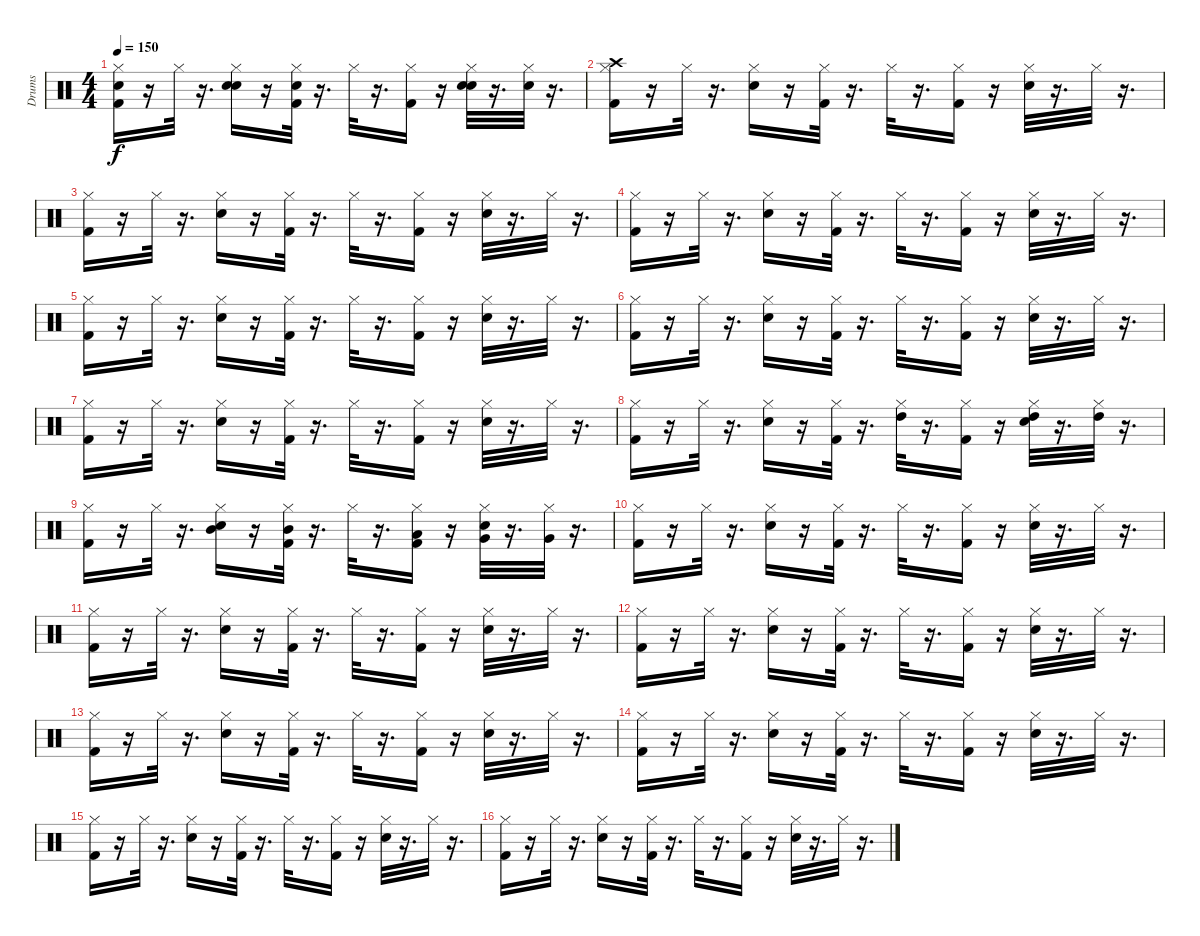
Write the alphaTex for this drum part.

\track ("Drums" "Drums") {instrument percussion}
\staff {score}
\articulation defaults
\ts (4 4)
\tempo 150
\clef neutral
\ks c
("Kick (hit) 2" "Hand Clap (hit)" "Hi-Hat (closed)").16{dy f} r.16 "Hi-Hat (closed)".32 r.16{d} ("Electric Snare (hit)" "Hand Clap (hit)" "Hi-Hat (closed)").16 r.16 ("Kick (hit) 2" "Hand Clap (hit)" "Hi-Hat (closed)").32 r.16{d} "Hi-Hat (closed)".32 r.16{d} ("Kick (hit) 2" "Hi-Hat (closed)").16 r.16 ("Electric Snare (hit)" "Hand Clap (hit)" "Hi-Hat (closed)").32 r.16{d} ("Hand Clap (hit)" "Hi-Hat (closed)").32 r.16{d} |
("Hi-Hat (closed)" "Crash high (hit)" "Kick (hit) 2").16 r.16 "Hi-Hat (closed)".32 r.16{d} ("Electric Snare (hit)" "Hi-Hat (closed)").16 r.16 ("Kick (hit) 2" "Hi-Hat (closed)").32 r.16{d} "Hi-Hat (closed)".32 r.16{d} ("Kick (hit) 2" "Hi-Hat (closed)").16 r.16 ("Electric Snare (hit)" "Hi-Hat (closed)").32 r.16{d} "Hi-Hat (closed)".32 r.16{d} |
("Kick (hit) 2" "Hi-Hat (closed)").16 r.16 "Hi-Hat (closed)".32 r.16{d} ("Electric Snare (hit)" "Hi-Hat (closed)").16 r.16 ("Kick (hit) 2" "Hi-Hat (closed)").32 r.16{d} "Hi-Hat (closed)".32 r.16{d} ("Kick (hit) 2" "Hi-Hat (closed)").16 r.16 ("Electric Snare (hit)" "Hi-Hat (closed)").32 r.16{d} "Hi-Hat (closed)".32 r.16{d} |
("Kick (hit) 2" "Hi-Hat (closed)").16 r.16 "Hi-Hat (closed)".32 r.16{d} ("Electric Snare (hit)" "Hi-Hat (closed)").16 r.16 ("Kick (hit) 2" "Hi-Hat (closed)").32 r.16{d} "Hi-Hat (closed)".32 r.16{d} ("Kick (hit) 2" "Hi-Hat (closed)").16 r.16 ("Electric Snare (hit)" "Hi-Hat (closed)").32 r.16{d} "Hi-Hat (closed)".32 r.16{d} |
("Kick (hit) 2" "Hi-Hat (closed)").16 r.16 "Hi-Hat (closed)".32 r.16{d} ("Electric Snare (hit)" "Hi-Hat (closed)").16 r.16 ("Kick (hit) 2" "Hi-Hat (closed)").32 r.16{d} "Hi-Hat (closed)".32 r.16{d} ("Kick (hit) 2" "Hi-Hat (closed)").16 r.16 ("Electric Snare (hit)" "Hi-Hat (closed)").32 r.16{d} "Hi-Hat (closed)".32 r.16{d} |
("Hi-Hat (closed)" "Kick (hit) 2").16 r.16 "Hi-Hat (closed)".32 r.16{d} ("Electric Snare (hit)" "Hi-Hat (closed)").16 r.16 ("Kick (hit) 2" "Hi-Hat (closed)").32 r.16{d} "Hi-Hat (closed)".32 r.16{d} ("Kick (hit) 2" "Hi-Hat (closed)").16 r.16 ("Electric Snare (hit)" "Hi-Hat (closed)").32 r.16{d} "Hi-Hat (closed)".32 r.16{d} |
("Kick (hit) 2" "Hi-Hat (closed)").16 r.16 "Hi-Hat (closed)".32 r.16{d} ("Electric Snare (hit)" "Hi-Hat (closed)").16 r.16 ("Kick (hit) 2" "Hi-Hat (closed)").32 r.16{d} "Hi-Hat (closed)".32 r.16{d} ("Kick (hit) 2" "Hi-Hat (closed)").16 r.16 ("Electric Snare (hit)" "Hi-Hat (closed)").32 r.16{d} "Hi-Hat (closed)".32 r.16{d} |
("Kick (hit) 2" "Hi-Hat (closed)").16 r.16 "Hi-Hat (closed)".32 r.16{d} ("Electric Snare (hit)" "Hi-Hat (closed)").16 r.16 ("Kick (hit) 2" "Hi-Hat (closed)").32 r.16{d} ("Hi-Hat (closed)" "High Tom (hit)").32 r.16{d} ("Kick (hit) 2" "Hi-Hat (closed)").16 r.16 ("Electric Snare (hit)" "Hi-Hat (closed)" "High Tom (hit)").32 r.16{d} ("Hi-Hat (closed)" "High Tom (hit)").32 r.16{d} |
("Kick (hit) 2" "Hi-Hat (closed)").16 r.16 "Hi-Hat (closed)".32 r.16{d} ("Electric Snare (hit)" "Hi-Hat (closed)" "Mid Tom (hit)").16 r.16 ("Kick (hit) 2" "Hi-Hat (closed)" "Mid Tom (hit)").32 r.16{d} "Hi-Hat (closed)".32 r.16{d} ("Kick (hit) 2" "Hi-Hat (closed)" "Low Tom (hit)").16 r.16 ("Electric Snare (hit)" "Hi-Hat (closed)" "Very Low Tom (hit)").32 r.16{d} ("Hi-Hat (closed)" "Very Low Tom (hit)").32 r.16{d} |
("Hi-Hat (closed)" "Kick (hit) 2").16 r.16 "Hi-Hat (closed)".32 r.16{d} ("Electric Snare (hit)" "Hi-Hat (closed)").16 r.16 ("Kick (hit) 2" "Hi-Hat (closed)").32 r.16{d} "Hi-Hat (closed)".32 r.16{d} ("Kick (hit) 2" "Hi-Hat (closed)").16 r.16 ("Electric Snare (hit)" "Hi-Hat (closed)").32 r.16{d} "Hi-Hat (closed)".32 r.16{d} |
("Kick (hit) 2" "Hi-Hat (closed)").16 r.16 "Hi-Hat (closed)".32 r.16{d} ("Electric Snare (hit)" "Hi-Hat (closed)").16 r.16 ("Kick (hit) 2" "Hi-Hat (closed)").32 r.16{d} "Hi-Hat (closed)".32 r.16{d} ("Kick (hit) 2" "Hi-Hat (closed)").16 r.16 ("Electric Snare (hit)" "Hi-Hat (closed)").32 r.16{d} "Hi-Hat (closed)".32 r.16{d} |
("Kick (hit) 2" "Hi-Hat (closed)").16 r.16 "Hi-Hat (closed)".32 r.16{d} ("Electric Snare (hit)" "Hi-Hat (closed)").16 r.16 ("Kick (hit) 2" "Hi-Hat (closed)").32 r.16{d} "Hi-Hat (closed)".32 r.16{d} ("Kick (hit) 2" "Hi-Hat (closed)").16 r.16 ("Electric Snare (hit)" "Hi-Hat (closed)").32 r.16{d} "Hi-Hat (closed)".32 r.16{d} |
("Kick (hit) 2" "Hi-Hat (closed)").16 r.16 "Hi-Hat (closed)".32 r.16{d} ("Electric Snare (hit)" "Hi-Hat (closed)").16 r.16 ("Kick (hit) 2" "Hi-Hat (closed)").32 r.16{d} "Hi-Hat (closed)".32 r.16{d} ("Kick (hit) 2" "Hi-Hat (closed)").16 r.16 ("Electric Snare (hit)" "Hi-Hat (closed)").32 r.16{d} "Hi-Hat (closed)".32 r.16{d} |
("Hi-Hat (closed)" "Kick (hit) 2").16 r.16 "Hi-Hat (closed)".32 r.16{d} ("Electric Snare (hit)" "Hi-Hat (closed)").16 r.16 ("Kick (hit) 2" "Hi-Hat (closed)").32 r.16{d} "Hi-Hat (closed)".32 r.16{d} ("Kick (hit) 2" "Hi-Hat (closed)").16 r.16 ("Electric Snare (hit)" "Hi-Hat (closed)").32 r.16{d} "Hi-Hat (closed)".32 r.16{d} |
("Kick (hit) 2" "Hi-Hat (closed)").16 r.16 "Hi-Hat (closed)".32 r.16{d} ("Electric Snare (hit)" "Hi-Hat (closed)").16 r.16 ("Kick (hit) 2" "Hi-Hat (closed)").32 r.16{d} "Hi-Hat (closed)".32 r.16{d} ("Kick (hit) 2" "Hi-Hat (closed)").16 r.16 ("Electric Snare (hit)" "Hi-Hat (closed)").32 r.16{d} "Hi-Hat (closed)".32 r.16{d} |
("Kick (hit) 2" "Hi-Hat (closed)").16 r.16 "Hi-Hat (closed)".32 r.16{d} ("Electric Snare (hit)" "Hi-Hat (closed)").16 r.16 ("Kick (hit) 2" "Hi-Hat (closed)").32 r.16{d} "Hi-Hat (closed)".32 r.16{d} ("Kick (hit) 2" "Hi-Hat (closed)").16 r.16 ("Electric Snare (hit)" "Hi-Hat (closed)").32 r.16{d} "Hi-Hat (closed)".32 r.16{d}
